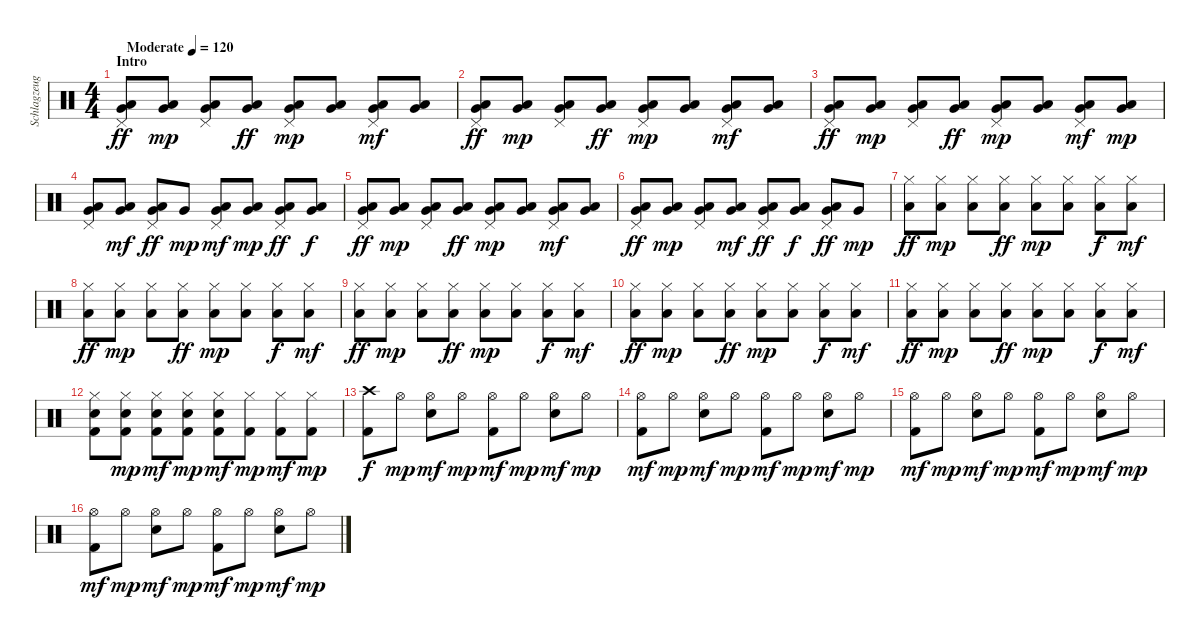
\track ("Schlagzeug" "Schlagzeug") {instrument percussion}
\staff {score}
\articulation defaults
\ts (4 4)
\section ("" "Intro")
\tempo (120 "Moderate")
\clef neutral
\ks c
("Pedal Hi-Hat (hit)" "Very Low Tom (hit)" "Low Floor Tom (hit)").8{dy ff} ("Very Low Tom (hit)" "Low Floor Tom (hit)").8{dy mp} ("Pedal Hi-Hat (hit)" "Very Low Tom (hit)" "Low Floor Tom (hit)").8 ("Very Low Tom (hit)" "Low Floor Tom (hit)").8{dy ff} ("Pedal Hi-Hat (hit)" "Very Low Tom (hit)" "Low Floor Tom (hit)").8{dy mp} ("Very Low Tom (hit)" "Low Floor Tom (hit)").8 ("Pedal Hi-Hat (hit)" "Very Low Tom (hit)" "Low Floor Tom (hit)").8{dy mf} ("Very Low Tom (hit)" "Low Floor Tom (hit)").8 |
("Pedal Hi-Hat (hit)" "Very Low Tom (hit)" "Low Floor Tom (hit)").8{dy ff} ("Very Low Tom (hit)" "Low Floor Tom (hit)").8{dy mp} ("Pedal Hi-Hat (hit)" "Very Low Tom (hit)" "Low Floor Tom (hit)").8 ("Very Low Tom (hit)" "Low Floor Tom (hit)").8{dy ff} ("Pedal Hi-Hat (hit)" "Very Low Tom (hit)" "Low Floor Tom (hit)").8{dy mp} ("Very Low Tom (hit)" "Low Floor Tom (hit)").8 ("Pedal Hi-Hat (hit)" "Very Low Tom (hit)" "Low Floor Tom (hit)").8{dy mf} ("Very Low Tom (hit)" "Low Floor Tom (hit)").8 |
("Pedal Hi-Hat (hit)" "Very Low Tom (hit)" "Low Floor Tom (hit)").8{dy ff} ("Very Low Tom (hit)" "Low Floor Tom (hit)").8{dy mp} ("Pedal Hi-Hat (hit)" "Very Low Tom (hit)" "Low Floor Tom (hit)").8 ("Very Low Tom (hit)" "Low Floor Tom (hit)").8{dy ff} ("Pedal Hi-Hat (hit)" "Very Low Tom (hit)" "Low Floor Tom (hit)").8{dy mp} ("Very Low Tom (hit)" "Low Floor Tom (hit)").8 ("Pedal Hi-Hat (hit)" "Very Low Tom (hit)" "Low Floor Tom (hit)").8{dy mf} ("Very Low Tom (hit)" "Low Floor Tom (hit)").8{dy mp} |
("Pedal Hi-Hat (hit)" "Very Low Tom (hit)" "Low Floor Tom (hit)").8 ("Very Low Tom (hit)" "Low Floor Tom (hit)").8{dy mf} ("Pedal Hi-Hat (hit)" "Very Low Tom (hit)" "Low Floor Tom (hit)").8{dy ff} "Very Low Tom (hit)".8{dy mp} ("Pedal Hi-Hat (hit)" "Very Low Tom (hit)" "Low Floor Tom (hit)").8{dy mf} ("Very Low Tom (hit)" "Low Floor Tom (hit)").8{dy mp} ("Pedal Hi-Hat (hit)" "Very Low Tom (hit)" "Low Floor Tom (hit)").8{dy ff} ("Very Low Tom (hit)" "Low Floor Tom (hit)").8{dy f} |
("Pedal Hi-Hat (hit)" "Very Low Tom (hit)" "Low Floor Tom (hit)").8{dy ff} ("Very Low Tom (hit)" "Low Floor Tom (hit)").8{dy mp} ("Pedal Hi-Hat (hit)" "Very Low Tom (hit)" "Low Floor Tom (hit)").8 ("Very Low Tom (hit)" "Low Floor Tom (hit)").8{dy ff} ("Pedal Hi-Hat (hit)" "Very Low Tom (hit)" "Low Floor Tom (hit)").8{dy mp} ("Very Low Tom (hit)" "Low Floor Tom (hit)").8 ("Pedal Hi-Hat (hit)" "Very Low Tom (hit)" "Low Floor Tom (hit)").8{dy mf} ("Very Low Tom (hit)" "Low Floor Tom (hit)").8 |
("Pedal Hi-Hat (hit)" "Very Low Tom (hit)" "Low Floor Tom (hit)").8{dy ff} ("Very Low Tom (hit)" "Low Floor Tom (hit)").8{dy mp} ("Pedal Hi-Hat (hit)" "Very Low Tom (hit)" "Low Floor Tom (hit)").8 ("Very Low Tom (hit)" "Low Floor Tom (hit)").8{dy mf} ("Pedal Hi-Hat (hit)" "Very Low Tom (hit)" "Low Floor Tom (hit)").8{dy ff} ("Very Low Tom (hit)" "Low Floor Tom (hit)").8{dy f} ("Pedal Hi-Hat (hit)" "Very Low Tom (hit)" "Low Floor Tom (hit)").8{dy ff} "Very Low Tom (hit)".8{dy mp} |
("Hi-Hat (closed)" "Low Floor Tom (hit)").8{dy ff} ("Hi-Hat (closed)" "Low Floor Tom (hit)").8{dy mp} ("Hi-Hat (closed)" "Low Floor Tom (hit)").8 ("Hi-Hat (closed)" "Low Floor Tom (hit)").8{dy ff} ("Hi-Hat (closed)" "Low Floor Tom (hit)").8{dy mp} ("Hi-Hat (closed)" "Low Floor Tom (hit)").8 ("Hi-Hat (closed)" "Low Floor Tom (hit)").8{dy f} ("Hi-Hat (closed)" "Low Floor Tom (hit)").8{dy mf} |
("Hi-Hat (closed)" "Low Floor Tom (hit)").8{dy ff} ("Hi-Hat (closed)" "Low Floor Tom (hit)").8{dy mp} ("Hi-Hat (closed)" "Low Floor Tom (hit)").8 ("Hi-Hat (closed)" "Low Floor Tom (hit)").8{dy ff} ("Hi-Hat (closed)" "Low Floor Tom (hit)").8{dy mp} ("Hi-Hat (closed)" "Low Floor Tom (hit)").8 ("Hi-Hat (closed)" "Low Floor Tom (hit)").8{dy f} ("Hi-Hat (closed)" "Low Floor Tom (hit)").8{dy mf} |
("Hi-Hat (closed)" "Low Floor Tom (hit)").8{dy ff} ("Hi-Hat (closed)" "Low Floor Tom (hit)").8{dy mp} ("Hi-Hat (closed)" "Low Floor Tom (hit)").8 ("Hi-Hat (closed)" "Low Floor Tom (hit)").8{dy ff} ("Hi-Hat (closed)" "Low Floor Tom (hit)").8{dy mp} ("Hi-Hat (closed)" "Low Floor Tom (hit)").8 ("Hi-Hat (closed)" "Low Floor Tom (hit)").8{dy f} ("Hi-Hat (closed)" "Low Floor Tom (hit)").8{dy mf} |
("Hi-Hat (closed)" "Low Floor Tom (hit)").8{dy ff} ("Hi-Hat (closed)" "Low Floor Tom (hit)").8{dy mp} ("Hi-Hat (closed)" "Low Floor Tom (hit)").8 ("Hi-Hat (closed)" "Low Floor Tom (hit)").8{dy ff} ("Hi-Hat (closed)" "Low Floor Tom (hit)").8{dy mp} ("Hi-Hat (closed)" "Low Floor Tom (hit)").8 ("Hi-Hat (closed)" "Low Floor Tom (hit)").8{dy f} ("Hi-Hat (closed)" "Low Floor Tom (hit)").8{dy mf} |
("Hi-Hat (closed)" "Low Floor Tom (hit)").8{dy ff} ("Hi-Hat (closed)" "Low Floor Tom (hit)").8{dy mp} ("Hi-Hat (closed)" "Low Floor Tom (hit)").8 ("Hi-Hat (closed)" "Low Floor Tom (hit)").8{dy ff} ("Hi-Hat (closed)" "Low Floor Tom (hit)").8{dy mp} ("Hi-Hat (closed)" "Low Floor Tom (hit)").8 ("Hi-Hat (closed)" "Low Floor Tom (hit)").8{dy f} ("Hi-Hat (closed)" "Low Floor Tom (hit)").8{dy mf} |
("Hi-Hat (closed)" "Electric Snare (hit)" "Kick (hit) 2").8 ("Hi-Hat (closed)" "Electric Snare (hit)" "Kick (hit) 2").8{dy mp} ("Hi-Hat (closed)" "Electric Snare (hit)" "Kick (hit) 2").8{dy mf} ("Hi-Hat (closed)" "Electric Snare (hit)" "Kick (hit) 2").8{dy mp} ("Hi-Hat (closed)" "Electric Snare (hit)" "Kick (hit) 2").8{dy mf} ("Hi-Hat (closed)" "Kick (hit) 2").8{dy mp} ("Hi-Hat (closed)" "Kick (hit) 2").8{dy mf} ("Hi-Hat (closed)" "Kick (hit) 2").8{dy mp} |
("Crash high (hit)" "Kick (hit) 2").8{dy f} "Hi-Hat (open)".8{dy mp} ("Hi-Hat (open)" "Electric Snare (hit)").8{dy mf} "Hi-Hat (open)".8{dy mp} ("Hi-Hat (open)" "Kick (hit) 2").8{dy mf} "Hi-Hat (open)".8{dy mp} ("Hi-Hat (open)" "Electric Snare (hit)").8{dy mf} "Hi-Hat (open)".8{dy mp} |
("Hi-Hat (open)" "Kick (hit) 2").8{dy mf} "Hi-Hat (open)".8{dy mp} ("Hi-Hat (open)" "Electric Snare (hit)").8{dy mf} "Hi-Hat (open)".8{dy mp} ("Hi-Hat (open)" "Kick (hit) 2").8{dy mf} "Hi-Hat (open)".8{dy mp} ("Hi-Hat (open)" "Electric Snare (hit)").8{dy mf} "Hi-Hat (open)".8{dy mp} |
("Hi-Hat (open)" "Kick (hit) 2").8{dy mf} "Hi-Hat (open)".8{dy mp} ("Hi-Hat (open)" "Electric Snare (hit)").8{dy mf} "Hi-Hat (open)".8{dy mp} ("Hi-Hat (open)" "Kick (hit) 2").8{dy mf} "Hi-Hat (open)".8{dy mp} ("Hi-Hat (open)" "Electric Snare (hit)").8{dy mf} "Hi-Hat (open)".8{dy mp} |
("Hi-Hat (open)" "Kick (hit) 2").8{dy mf} "Hi-Hat (open)".8{dy mp} ("Hi-Hat (open)" "Electric Snare (hit)").8{dy mf} "Hi-Hat (open)".8{dy mp} ("Hi-Hat (open)" "Kick (hit) 2").8{dy mf} "Hi-Hat (open)".8{dy mp} ("Hi-Hat (open)" "Electric Snare (hit)").8{dy mf} "Hi-Hat (open)".8{dy mp}
